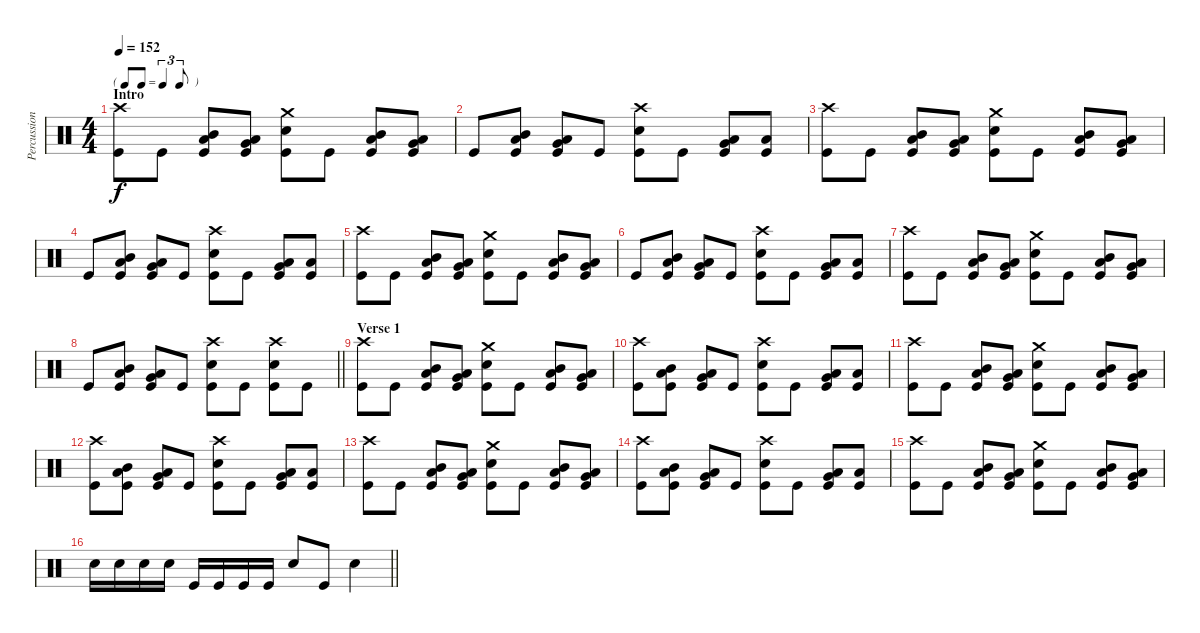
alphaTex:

\track ("Percussion" "Percussion") {instrument percussion}
\staff {score}
\articulation defaults
\ts (4 4)
\tf triplet8th
\section ("" "Intro")
\tempo 152
\clef neutral
\ks c
("Crash high (hit)" "Kick (hit)").8{dy f} "Kick (hit)".8 ("Mid Tom (hit)" "Low Tom (hit)" "Kick (hit)").8 ("Low Tom (hit)" "Very Low Tom (hit)" "Kick (hit)").8 ("Snare (hit) 2" "Crash medium (hit)" "Kick (hit)").8 "Kick (hit)".8 ("Low Tom (hit)" "Mid Tom (hit)" "Kick (hit)").8 ("Low Tom (hit)" "Very Low Tom (hit)" "Kick (hit)").8 |
"Kick (hit)".8 ("Low Tom (hit)" "Mid Tom (hit)" "Kick (hit)").8 ("Very Low Tom (hit)" "Low Tom (hit)" "Kick (hit)").8 "Kick (hit)".8 ("Crash high (hit)" "Snare (hit) 2" "Kick (hit)").8 "Kick (hit)".8 ("Very Low Tom (hit)" "Low Tom (hit)" "Kick (hit)").8 ("Low Floor Tom (hit)" "Kick (hit)").8 |
("Crash high (hit)" "Kick (hit)").8 "Kick (hit)".8 ("Mid Tom (hit)" "Low Tom (hit)" "Kick (hit)").8 ("Low Tom (hit)" "Very Low Tom (hit)" "Kick (hit)").8 ("Snare (hit) 2" "Crash medium (hit)" "Kick (hit)").8 "Kick (hit)".8 ("Low Tom (hit)" "Mid Tom (hit)" "Kick (hit)").8 ("Low Tom (hit)" "Very Low Tom (hit)" "Kick (hit)").8 |
"Kick (hit)".8 ("Low Tom (hit)" "Mid Tom (hit)" "Kick (hit)").8 ("Very Low Tom (hit)" "Low Tom (hit)" "Kick (hit)").8 "Kick (hit)".8 ("Crash high (hit)" "Snare (hit) 2" "Kick (hit)").8 "Kick (hit)".8 ("Very Low Tom (hit)" "Low Tom (hit)" "Kick (hit)").8 ("Low Floor Tom (hit)" "Kick (hit)").8 |
("Crash high (hit)" "Kick (hit)").8 "Kick (hit)".8 ("Mid Tom (hit)" "Low Tom (hit)" "Kick (hit)").8 ("Low Tom (hit)" "Very Low Tom (hit)" "Kick (hit)").8 ("Snare (hit) 2" "Crash medium (hit)" "Kick (hit)").8 "Kick (hit)".8 ("Low Tom (hit)" "Mid Tom (hit)" "Kick (hit)").8 ("Low Tom (hit)" "Very Low Tom (hit)" "Kick (hit)").8 |
"Kick (hit)".8 ("Low Tom (hit)" "Mid Tom (hit)" "Kick (hit)").8 ("Very Low Tom (hit)" "Low Tom (hit)" "Kick (hit)").8 "Kick (hit)".8 ("Crash high (hit)" "Snare (hit) 2" "Kick (hit)").8 "Kick (hit)".8 ("Very Low Tom (hit)" "Low Tom (hit)" "Kick (hit)").8 ("Low Floor Tom (hit)" "Kick (hit)").8 |
("Crash high (hit)" "Kick (hit)").8 "Kick (hit)".8 ("Mid Tom (hit)" "Low Tom (hit)" "Kick (hit)").8 ("Low Tom (hit)" "Very Low Tom (hit)" "Kick (hit)").8 ("Snare (hit) 2" "Crash medium (hit)" "Kick (hit)").8 "Kick (hit)".8 ("Low Tom (hit)" "Mid Tom (hit)" "Kick (hit)").8 ("Low Tom (hit)" "Very Low Tom (hit)" "Kick (hit)").8 |
\barLineRight lightlight "Kick (hit)".8
("Low Tom (hit)" "Mid Tom (hit)" "Kick (hit)").8 ("Very Low Tom (hit)" "Low Tom (hit)" "Kick (hit)").8 "Kick (hit)".8 ("Crash high (hit)" "Snare (hit) 2" "Kick (hit)").8 "Kick (hit)".8 ("Crash high (hit)" "Snare (hit) 2" "Kick (hit)").8 "Kick (hit)".8 |
\section ("" "Verse 1")
("Crash high (hit)" "Kick (hit)").8 "Kick (hit)".8 ("Mid Tom (hit)" "Low Tom (hit)" "Kick (hit)").8 ("Low Tom (hit)" "Very Low Tom (hit)" "Kick (hit)").8 ("Snare (hit) 2" "Crash medium (hit)" "Kick (hit)").8 "Kick (hit)".8 ("Low Tom (hit)" "Mid Tom (hit)" "Kick (hit)").8 ("Low Tom (hit)" "Very Low Tom (hit)" "Kick (hit)").8 |
("Crash high (hit)" "Kick (hit)").8 ("Low Tom (hit)" "Mid Tom (hit)" "Kick (hit)").8 ("Very Low Tom (hit)" "Low Tom (hit)" "Kick (hit)").8 "Kick (hit)".8 ("Crash high (hit)" "Snare (hit) 2" "Kick (hit)").8 "Kick (hit)".8 ("Very Low Tom (hit)" "Low Tom (hit)" "Kick (hit)").8 ("Low Floor Tom (hit)" "Kick (hit)").8 |
("Crash high (hit)" "Kick (hit)").8 "Kick (hit)".8 ("Mid Tom (hit)" "Low Tom (hit)" "Kick (hit)").8 ("Low Tom (hit)" "Very Low Tom (hit)" "Kick (hit)").8 ("Snare (hit) 2" "Crash medium (hit)" "Kick (hit)").8 "Kick (hit)".8 ("Low Tom (hit)" "Mid Tom (hit)" "Kick (hit)").8 ("Low Tom (hit)" "Very Low Tom (hit)" "Kick (hit)").8 |
("Crash high (hit)" "Kick (hit)").8 ("Low Tom (hit)" "Mid Tom (hit)" "Kick (hit)").8 ("Very Low Tom (hit)" "Low Tom (hit)" "Kick (hit)").8 "Kick (hit)".8 ("Crash high (hit)" "Snare (hit) 2" "Kick (hit)").8 "Kick (hit)".8 ("Very Low Tom (hit)" "Low Tom (hit)" "Kick (hit)").8 ("Low Floor Tom (hit)" "Kick (hit)").8 |
("Crash high (hit)" "Kick (hit)").8 "Kick (hit)".8 ("Mid Tom (hit)" "Low Tom (hit)" "Kick (hit)").8 ("Low Tom (hit)" "Very Low Tom (hit)" "Kick (hit)").8 ("Snare (hit) 2" "Crash medium (hit)" "Kick (hit)").8 "Kick (hit)".8 ("Low Tom (hit)" "Mid Tom (hit)" "Kick (hit)").8 ("Low Tom (hit)" "Very Low Tom (hit)" "Kick (hit)").8 |
("Crash high (hit)" "Kick (hit)").8 ("Low Tom (hit)" "Mid Tom (hit)" "Kick (hit)").8 ("Very Low Tom (hit)" "Low Tom (hit)" "Kick (hit)").8 "Kick (hit)".8 ("Crash high (hit)" "Snare (hit) 2" "Kick (hit)").8 "Kick (hit)".8 ("Very Low Tom (hit)" "Low Tom (hit)" "Kick (hit)").8 ("Low Floor Tom (hit)" "Kick (hit)").8 |
("Crash high (hit)" "Kick (hit)").8 "Kick (hit)".8 ("Mid Tom (hit)" "Low Tom (hit)" "Kick (hit)").8 ("Low Tom (hit)" "Very Low Tom (hit)" "Kick (hit)").8 ("Snare (hit) 2" "Crash medium (hit)" "Kick (hit)").8 "Kick (hit)".8 ("Low Tom (hit)" "Mid Tom (hit)" "Kick (hit)").8 ("Low Tom (hit)" "Very Low Tom (hit)" "Kick (hit)").8 |
\barLineRight lightlight "Snare (hit) 2".16 "Snare (hit) 2".16 "Snare (hit) 2".16 "Snare (hit) 2".16 "Kick (hit)".16 "Kick (hit)".16 "Kick (hit)".16 "Kick (hit)".16 "Snare (hit) 2".8 "Kick (hit)".8 "Snare (hit) 2".4
